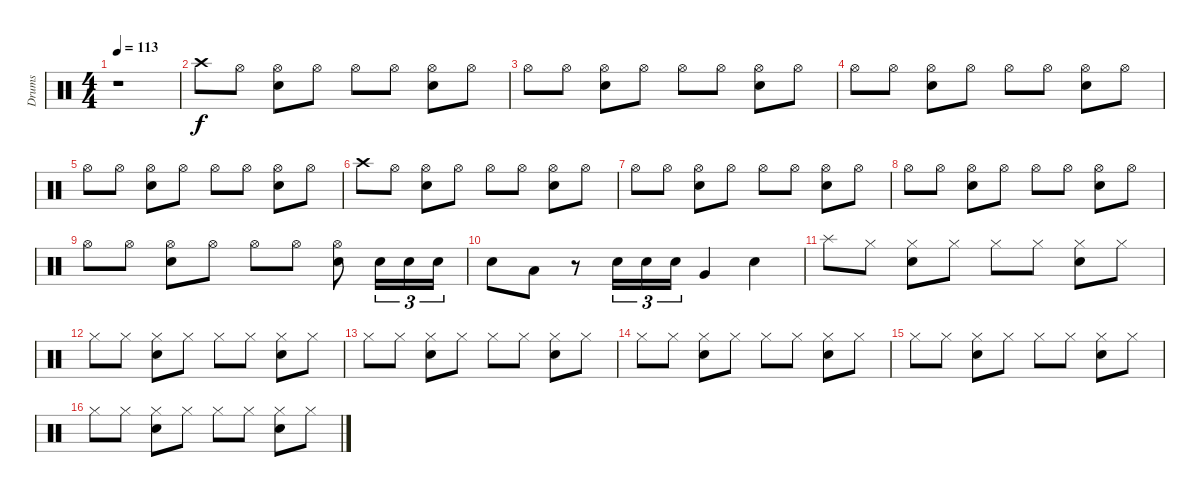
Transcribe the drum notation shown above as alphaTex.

\track ("Drums" "Drums") {instrument percussion}
\staff {score}
\articulation defaults
\ts (4 4)
\tempo 113
\clef neutral
\ks c
r.1{dy f} |
"Crash high (hit)".8 "Hi-Hat (open)".8 ("Hi-Hat (open)" "Snare (hit) 2").8 "Hi-Hat (open)".8 "Hi-Hat (open)".8 "Hi-Hat (open)".8 ("Hi-Hat (open)" "Snare (hit) 2").8 "Hi-Hat (open)".8 |
"Hi-Hat (open)".8 "Hi-Hat (open)".8 ("Hi-Hat (open)" "Snare (hit) 2").8 "Hi-Hat (open)".8 "Hi-Hat (open)".8 "Hi-Hat (open)".8 ("Hi-Hat (open)" "Snare (hit) 2").8 "Hi-Hat (open)".8 |
"Hi-Hat (open)".8 "Hi-Hat (open)".8 ("Hi-Hat (open)" "Snare (hit) 2").8 "Hi-Hat (open)".8 "Hi-Hat (open)".8 "Hi-Hat (open)".8 ("Hi-Hat (open)" "Snare (hit) 2").8 "Hi-Hat (open)".8 |
"Hi-Hat (open)".8 "Hi-Hat (open)".8 ("Hi-Hat (open)" "Snare (hit) 2").8 "Hi-Hat (open)".8 "Hi-Hat (open)".8 "Hi-Hat (open)".8 ("Hi-Hat (open)" "Snare (hit) 2").8 "Hi-Hat (open)".8 |
"Crash high (hit)".8 "Hi-Hat (open)".8 ("Hi-Hat (open)" "Snare (hit) 2").8 "Hi-Hat (open)".8 "Hi-Hat (open)".8 "Hi-Hat (open)".8 ("Hi-Hat (open)" "Snare (hit) 2").8 "Hi-Hat (open)".8 |
"Hi-Hat (open)".8 "Hi-Hat (open)".8 ("Hi-Hat (open)" "Snare (hit) 2").8 "Hi-Hat (open)".8 "Hi-Hat (open)".8 "Hi-Hat (open)".8 ("Hi-Hat (open)" "Snare (hit) 2").8 "Hi-Hat (open)".8 |
"Hi-Hat (open)".8 "Hi-Hat (open)".8 ("Hi-Hat (open)" "Snare (hit) 2").8 "Hi-Hat (open)".8 "Hi-Hat (open)".8 "Hi-Hat (open)".8 ("Hi-Hat (open)" "Snare (hit) 2").8 "Hi-Hat (open)".8 |
"Hi-Hat (open)".8 "Hi-Hat (open)".8 ("Hi-Hat (open)" "Snare (hit) 2").8 "Hi-Hat (open)".8 "Hi-Hat (open)".8 "Hi-Hat (open)".8 ("Hi-Hat (open)" "Snare (hit) 2").8 "Snare (hit) 2".16{tu (3 2)} "Snare (hit) 2".16{tu (3 2)} "Snare (hit) 2".16{tu (3 2)} |
"Snare (hit) 2".8 "Low Tom (hit)".8 r.8 "Snare (hit) 2".16{tu (3 2)} "Snare (hit) 2".16{tu (3 2)} "Snare (hit) 2".16{tu (3 2)} "Very Low Tom (hit)".4 "Snare (hit) 2".4 |
"Splash (hit)".8 "Hi-Hat (closed)".8 ("Hi-Hat (closed)" "Snare (hit) 2").8 "Hi-Hat (closed)".8 "Hi-Hat (closed)".8 "Hi-Hat (closed)".8 ("Hi-Hat (closed)" "Snare (hit) 2").8 "Hi-Hat (closed)".8 |
"Hi-Hat (closed)".8 "Hi-Hat (closed)".8 ("Hi-Hat (closed)" "Snare (hit) 2").8 "Hi-Hat (closed)".8 "Hi-Hat (closed)".8 "Hi-Hat (closed)".8 ("Hi-Hat (closed)" "Snare (hit) 2").8 "Hi-Hat (closed)".8 |
"Hi-Hat (closed)".8 "Hi-Hat (closed)".8 ("Hi-Hat (closed)" "Snare (hit) 2").8 "Hi-Hat (closed)".8 "Hi-Hat (closed)".8 "Hi-Hat (closed)".8 ("Hi-Hat (closed)" "Snare (hit) 2").8 "Hi-Hat (closed)".8 |
"Hi-Hat (closed)".8 "Hi-Hat (closed)".8 ("Hi-Hat (closed)" "Snare (hit) 2").8 "Hi-Hat (closed)".8 "Hi-Hat (closed)".8 "Hi-Hat (closed)".8 ("Hi-Hat (closed)" "Snare (hit) 2").8 "Hi-Hat (closed)".8 |
"Hi-Hat (closed)".8 "Hi-Hat (closed)".8 ("Hi-Hat (closed)" "Snare (hit) 2").8 "Hi-Hat (closed)".8 "Hi-Hat (closed)".8 "Hi-Hat (closed)".8 ("Hi-Hat (closed)" "Snare (hit) 2").8 "Hi-Hat (closed)".8 |
"Hi-Hat (closed)".8 "Hi-Hat (closed)".8 ("Hi-Hat (closed)" "Snare (hit) 2").8 "Hi-Hat (closed)".8 "Hi-Hat (closed)".8 "Hi-Hat (closed)".8 ("Hi-Hat (closed)" "Snare (hit) 2").8 "Hi-Hat (closed)".8
